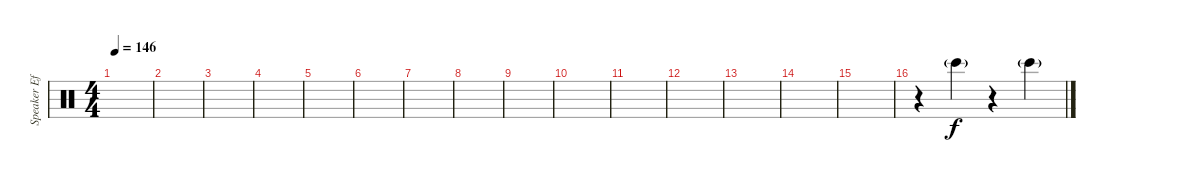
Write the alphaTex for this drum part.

\track ("Speaker Effects" "Speaker Ef") {instrument percussion}
\staff {score}
\articulation defaults
\ts (4 4)
\tempo 146
\clef neutral
\ks c
|
|
|
|
|
|
|
|
|
|
|
|
|
|
|
r.4{balance 8} "Bongo High (hit)"{g}.4{balance 4} r.4{balance 8} "Bongo High (hit)"{g}.4{balance 16}
